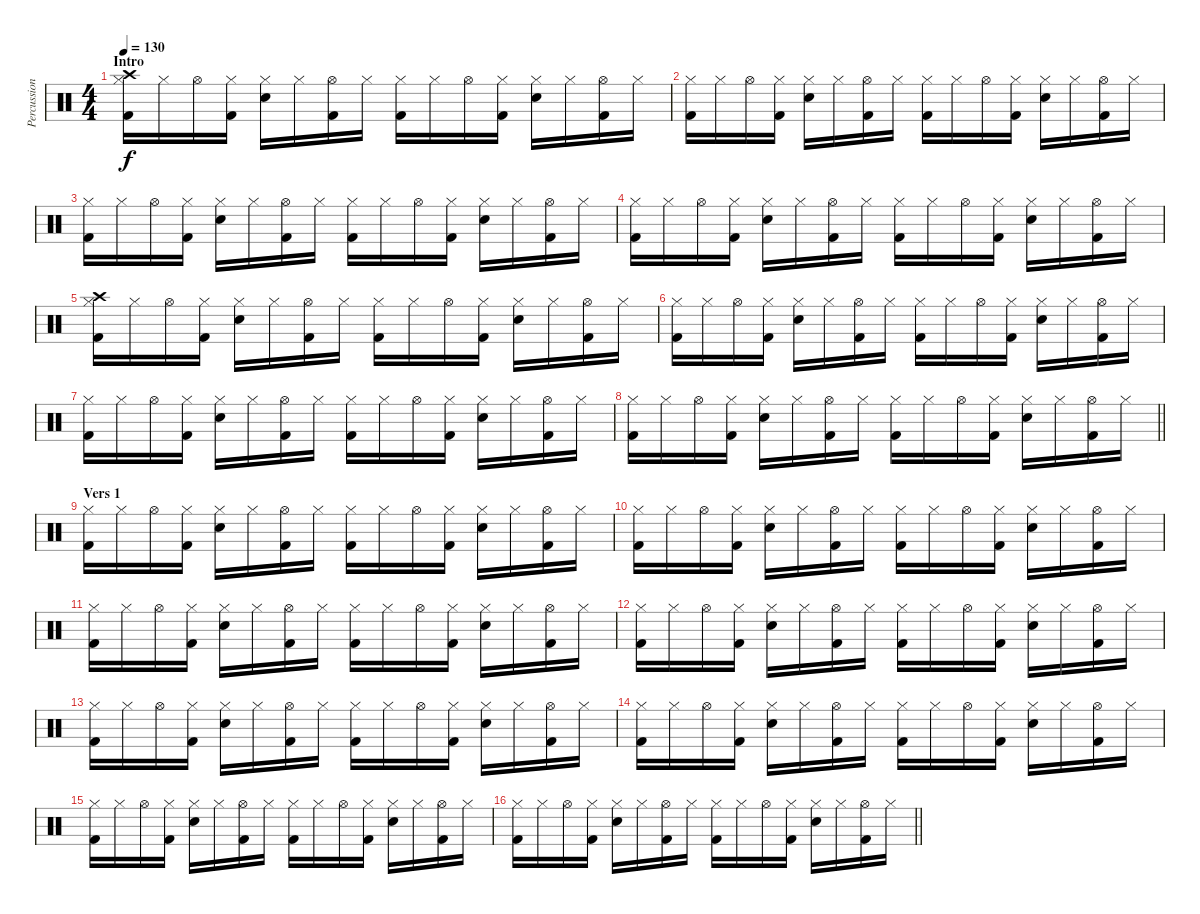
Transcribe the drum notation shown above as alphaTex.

\track ("Percussion" "Percussion") {instrument percussion}
\staff {score}
\articulation defaults
\ts (4 4)
\section ("" "Intro")
\tempo 130
\clef neutral
\ks c
("Hi-Hat (closed)" "Crash high (hit)" "Kick (hit) 2").16{dy f} "Hi-Hat (closed)".16 "Hi-Hat (open)".16 ("Hi-Hat (closed)" "Kick (hit) 2").16 ("Hi-Hat (closed)" "Snare (hit) 2").16 "Hi-Hat (closed)".16 ("Hi-Hat (open)" "Kick (hit) 2").16 "Hi-Hat (closed)".16 ("Hi-Hat (closed)" "Kick (hit) 2").16 "Hi-Hat (closed)".16 "Hi-Hat (open)".16 ("Hi-Hat (closed)" "Kick (hit) 2").16 ("Hi-Hat (closed)" "Snare (hit) 2").16 "Hi-Hat (closed)".16 ("Hi-Hat (open)" "Kick (hit) 2").16 "Hi-Hat (closed)".16 |
("Hi-Hat (closed)" "Kick (hit) 2").16 "Hi-Hat (closed)".16 "Hi-Hat (open)".16 ("Hi-Hat (closed)" "Kick (hit) 2").16 ("Hi-Hat (closed)" "Snare (hit) 2").16 "Hi-Hat (closed)".16 ("Hi-Hat (open)" "Kick (hit) 2").16 "Hi-Hat (closed)".16 ("Hi-Hat (closed)" "Kick (hit) 2").16 "Hi-Hat (closed)".16 "Hi-Hat (open)".16 ("Hi-Hat (closed)" "Kick (hit) 2").16 ("Hi-Hat (closed)" "Snare (hit) 2").16 "Hi-Hat (closed)".16 ("Hi-Hat (open)" "Kick (hit) 2").16 "Hi-Hat (closed)".16 |
("Hi-Hat (closed)" "Kick (hit) 2").16 "Hi-Hat (closed)".16 "Hi-Hat (open)".16 ("Hi-Hat (closed)" "Kick (hit) 2").16 ("Hi-Hat (closed)" "Snare (hit) 2").16 "Hi-Hat (closed)".16 ("Hi-Hat (open)" "Kick (hit) 2").16 "Hi-Hat (closed)".16 ("Hi-Hat (closed)" "Kick (hit) 2").16 "Hi-Hat (closed)".16 "Hi-Hat (open)".16 ("Hi-Hat (closed)" "Kick (hit) 2").16 ("Hi-Hat (closed)" "Snare (hit) 2").16 "Hi-Hat (closed)".16 ("Hi-Hat (open)" "Kick (hit) 2").16 "Hi-Hat (closed)".16 |
("Hi-Hat (closed)" "Kick (hit) 2").16 "Hi-Hat (closed)".16 "Hi-Hat (open)".16 ("Hi-Hat (closed)" "Kick (hit) 2").16 ("Hi-Hat (closed)" "Snare (hit) 2").16 "Hi-Hat (closed)".16 ("Hi-Hat (open)" "Kick (hit) 2").16 "Hi-Hat (closed)".16 ("Hi-Hat (closed)" "Kick (hit) 2").16 "Hi-Hat (closed)".16 "Hi-Hat (open)".16 ("Hi-Hat (closed)" "Kick (hit) 2").16 ("Hi-Hat (closed)" "Snare (hit) 2").16 "Hi-Hat (closed)".16 ("Hi-Hat (open)" "Kick (hit) 2").16 "Hi-Hat (closed)".16 |
("Hi-Hat (closed)" "Crash high (hit)" "Kick (hit) 2").16 "Hi-Hat (closed)".16 "Hi-Hat (open)".16 ("Hi-Hat (closed)" "Kick (hit) 2").16 ("Hi-Hat (closed)" "Snare (hit) 2").16 "Hi-Hat (closed)".16 ("Hi-Hat (open)" "Kick (hit) 2").16 "Hi-Hat (closed)".16 ("Hi-Hat (closed)" "Kick (hit) 2").16 "Hi-Hat (closed)".16 "Hi-Hat (open)".16 ("Hi-Hat (closed)" "Kick (hit) 2").16 ("Hi-Hat (closed)" "Snare (hit) 2").16 "Hi-Hat (closed)".16 ("Hi-Hat (open)" "Kick (hit) 2").16 "Hi-Hat (closed)".16 |
("Hi-Hat (closed)" "Kick (hit) 2").16 "Hi-Hat (closed)".16 "Hi-Hat (open)".16 ("Hi-Hat (closed)" "Kick (hit) 2").16 ("Hi-Hat (closed)" "Snare (hit) 2").16 "Hi-Hat (closed)".16 ("Hi-Hat (open)" "Kick (hit) 2").16 "Hi-Hat (closed)".16 ("Hi-Hat (closed)" "Kick (hit) 2").16 "Hi-Hat (closed)".16 "Hi-Hat (open)".16 ("Hi-Hat (closed)" "Kick (hit) 2").16 ("Hi-Hat (closed)" "Snare (hit) 2").16 "Hi-Hat (closed)".16 ("Hi-Hat (open)" "Kick (hit) 2").16 "Hi-Hat (closed)".16 |
("Hi-Hat (closed)" "Kick (hit) 2").16 "Hi-Hat (closed)".16 "Hi-Hat (open)".16 ("Hi-Hat (closed)" "Kick (hit) 2").16 ("Hi-Hat (closed)" "Snare (hit) 2").16 "Hi-Hat (closed)".16 ("Hi-Hat (open)" "Kick (hit) 2").16 "Hi-Hat (closed)".16 ("Hi-Hat (closed)" "Kick (hit) 2").16 "Hi-Hat (closed)".16 "Hi-Hat (open)".16 ("Hi-Hat (closed)" "Kick (hit) 2").16 ("Hi-Hat (closed)" "Snare (hit) 2").16 "Hi-Hat (closed)".16 ("Hi-Hat (open)" "Kick (hit) 2").16 "Hi-Hat (closed)".16 |
\barLineRight lightlight
("Hi-Hat (closed)" "Kick (hit) 2").16 "Hi-Hat (closed)".16 "Hi-Hat (open)".16 ("Hi-Hat (closed)" "Kick (hit) 2").16 ("Hi-Hat (closed)" "Snare (hit) 2").16 "Hi-Hat (closed)".16 ("Hi-Hat (open)" "Kick (hit) 2").16 "Hi-Hat (closed)".16 ("Hi-Hat (closed)" "Kick (hit) 2").16 "Hi-Hat (closed)".16 "Hi-Hat (open)".16 ("Hi-Hat (closed)" "Kick (hit) 2").16 ("Hi-Hat (closed)" "Snare (hit) 2").16 "Hi-Hat (closed)".16 ("Hi-Hat (open)" "Kick (hit) 2").16 "Hi-Hat (closed)".16 |
\section ("" "Vers 1")
("Hi-Hat (closed)" "Kick (hit) 2").16 "Hi-Hat (closed)".16 "Hi-Hat (open)".16 ("Hi-Hat (closed)" "Kick (hit) 2").16 ("Hi-Hat (closed)" "Snare (hit) 2").16 "Hi-Hat (closed)".16 ("Hi-Hat (open)" "Kick (hit) 2").16 "Hi-Hat (closed)".16 ("Hi-Hat (closed)" "Kick (hit) 2").16 "Hi-Hat (closed)".16 "Hi-Hat (open)".16 ("Hi-Hat (closed)" "Kick (hit) 2").16 ("Hi-Hat (closed)" "Snare (hit) 2").16 "Hi-Hat (closed)".16 ("Hi-Hat (open)" "Kick (hit) 2").16 "Hi-Hat (closed)".16 |
("Hi-Hat (closed)" "Kick (hit) 2").16 "Hi-Hat (closed)".16 "Hi-Hat (open)".16 ("Hi-Hat (closed)" "Kick (hit) 2").16 ("Hi-Hat (closed)" "Snare (hit) 2").16 "Hi-Hat (closed)".16 ("Hi-Hat (open)" "Kick (hit) 2").16 "Hi-Hat (closed)".16 ("Hi-Hat (closed)" "Kick (hit) 2").16 "Hi-Hat (closed)".16 "Hi-Hat (open)".16 ("Hi-Hat (closed)" "Kick (hit) 2").16 ("Hi-Hat (closed)" "Snare (hit) 2").16 "Hi-Hat (closed)".16 ("Hi-Hat (open)" "Kick (hit) 2").16 "Hi-Hat (closed)".16 |
("Hi-Hat (closed)" "Kick (hit) 2").16 "Hi-Hat (closed)".16 "Hi-Hat (open)".16 ("Hi-Hat (closed)" "Kick (hit) 2").16 ("Hi-Hat (closed)" "Snare (hit) 2").16 "Hi-Hat (closed)".16 ("Hi-Hat (open)" "Kick (hit) 2").16 "Hi-Hat (closed)".16 ("Hi-Hat (closed)" "Kick (hit) 2").16 "Hi-Hat (closed)".16 "Hi-Hat (open)".16 ("Hi-Hat (closed)" "Kick (hit) 2").16 ("Hi-Hat (closed)" "Snare (hit) 2").16 "Hi-Hat (closed)".16 ("Hi-Hat (open)" "Kick (hit) 2").16 "Hi-Hat (closed)".16 |
("Hi-Hat (closed)" "Kick (hit) 2").16 "Hi-Hat (closed)".16 "Hi-Hat (open)".16 ("Hi-Hat (closed)" "Kick (hit) 2").16 ("Hi-Hat (closed)" "Snare (hit) 2").16 "Hi-Hat (closed)".16 ("Hi-Hat (open)" "Kick (hit) 2").16 "Hi-Hat (closed)".16 ("Hi-Hat (closed)" "Kick (hit) 2").16 "Hi-Hat (closed)".16 "Hi-Hat (open)".16 ("Hi-Hat (closed)" "Kick (hit) 2").16 ("Hi-Hat (closed)" "Snare (hit) 2").16 "Hi-Hat (closed)".16 ("Hi-Hat (open)" "Kick (hit) 2").16 "Hi-Hat (closed)".16 |
("Hi-Hat (closed)" "Kick (hit) 2").16 "Hi-Hat (closed)".16 "Hi-Hat (open)".16 ("Hi-Hat (closed)" "Kick (hit) 2").16 ("Hi-Hat (closed)" "Snare (hit) 2").16 "Hi-Hat (closed)".16 ("Hi-Hat (open)" "Kick (hit) 2").16 "Hi-Hat (closed)".16 ("Hi-Hat (closed)" "Kick (hit) 2").16 "Hi-Hat (closed)".16 "Hi-Hat (open)".16 ("Hi-Hat (closed)" "Kick (hit) 2").16 ("Hi-Hat (closed)" "Snare (hit) 2").16 "Hi-Hat (closed)".16 ("Hi-Hat (open)" "Kick (hit) 2").16 "Hi-Hat (closed)".16 |
("Hi-Hat (closed)" "Kick (hit) 2").16 "Hi-Hat (closed)".16 "Hi-Hat (open)".16 ("Hi-Hat (closed)" "Kick (hit) 2").16 ("Hi-Hat (closed)" "Snare (hit) 2").16 "Hi-Hat (closed)".16 ("Hi-Hat (open)" "Kick (hit) 2").16 "Hi-Hat (closed)".16 ("Hi-Hat (closed)" "Kick (hit) 2").16 "Hi-Hat (closed)".16 "Hi-Hat (open)".16 ("Hi-Hat (closed)" "Kick (hit) 2").16 ("Hi-Hat (closed)" "Snare (hit) 2").16 "Hi-Hat (closed)".16 ("Hi-Hat (open)" "Kick (hit) 2").16 "Hi-Hat (closed)".16 |
("Hi-Hat (closed)" "Kick (hit) 2").16 "Hi-Hat (closed)".16 "Hi-Hat (open)".16 ("Hi-Hat (closed)" "Kick (hit) 2").16 ("Hi-Hat (closed)" "Snare (hit) 2").16 "Hi-Hat (closed)".16 ("Hi-Hat (open)" "Kick (hit) 2").16 "Hi-Hat (closed)".16 ("Hi-Hat (closed)" "Kick (hit) 2").16 "Hi-Hat (closed)".16 "Hi-Hat (open)".16 ("Hi-Hat (closed)" "Kick (hit) 2").16 ("Hi-Hat (closed)" "Snare (hit) 2").16 "Hi-Hat (closed)".16 ("Hi-Hat (open)" "Kick (hit) 2").16 "Hi-Hat (closed)".16 |
\barLineRight lightlight
("Hi-Hat (closed)" "Kick (hit) 2").16 "Hi-Hat (closed)".16 "Hi-Hat (open)".16 ("Hi-Hat (closed)" "Kick (hit) 2").16 ("Hi-Hat (closed)" "Snare (hit) 2").16 "Hi-Hat (closed)".16 ("Hi-Hat (open)" "Kick (hit) 2").16 "Hi-Hat (closed)".16 ("Hi-Hat (closed)" "Kick (hit) 2").16 "Hi-Hat (closed)".16 "Hi-Hat (open)".16 ("Hi-Hat (closed)" "Kick (hit) 2").16 ("Hi-Hat (closed)" "Snare (hit) 2").16 "Hi-Hat (closed)".16 ("Hi-Hat (open)" "Kick (hit) 2").16 "Hi-Hat (closed)".16
